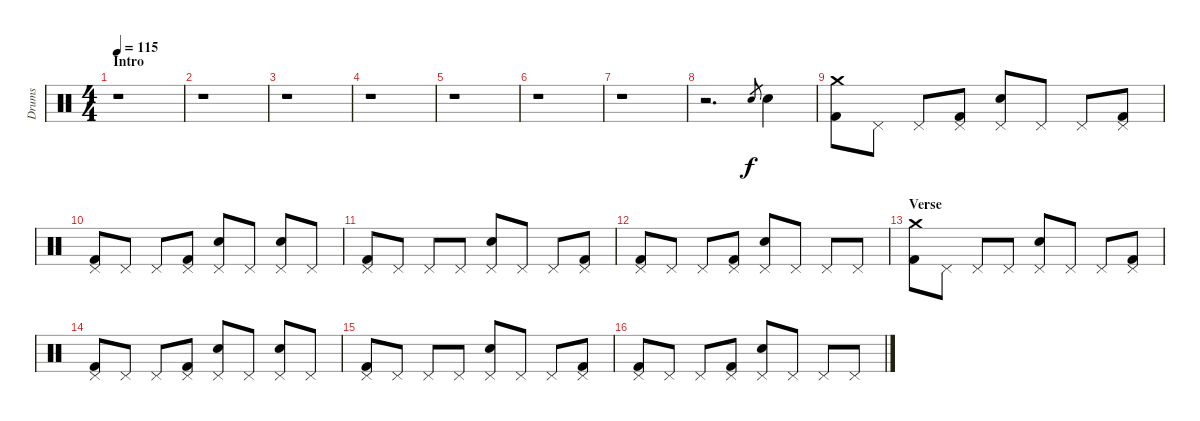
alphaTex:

\track ("Drums" "Drums") {instrument percussion}
\staff {score}
\articulation defaults
\ts (4 4)
\section ("" "Intro")
\tempo 115
\clef neutral
\ks c
r.1{dy f} |
r.1 |
r.1 |
r.1 |
r.1 |
r.1 |
r.1 |
r.2{d} "Electric Snare (hit)".8{gr} "Electric Snare (hit)".4 |
("Crash medium (hit)" "Kick (hit) 2").8 "Pedal Hi-Hat (hit)".8 "Pedal Hi-Hat (hit)".8 ("Pedal Hi-Hat (hit)" "Kick (hit) 2").8 ("Pedal Hi-Hat (hit)" "Electric Snare (hit)").8 "Pedal Hi-Hat (hit)".8 "Pedal Hi-Hat (hit)".8 ("Pedal Hi-Hat (hit)" "Kick (hit) 2").8 |
("Pedal Hi-Hat (hit)" "Kick (hit) 2").8 "Pedal Hi-Hat (hit)".8 "Pedal Hi-Hat (hit)".8 ("Pedal Hi-Hat (hit)" "Kick (hit) 2").8 ("Pedal Hi-Hat (hit)" "Electric Snare (hit)").8 "Pedal Hi-Hat (hit)".8 ("Pedal Hi-Hat (hit)" "Electric Snare (hit)").8 "Pedal Hi-Hat (hit)".8 |
("Pedal Hi-Hat (hit)" "Kick (hit) 2").8 "Pedal Hi-Hat (hit)".8 "Pedal Hi-Hat (hit)".8 "Pedal Hi-Hat (hit)".8 ("Pedal Hi-Hat (hit)" "Electric Snare (hit)").8 "Pedal Hi-Hat (hit)".8 "Pedal Hi-Hat (hit)".8 ("Pedal Hi-Hat (hit)" "Kick (hit) 2").8 |
("Pedal Hi-Hat (hit)" "Kick (hit) 2").8 "Pedal Hi-Hat (hit)".8 "Pedal Hi-Hat (hit)".8 ("Pedal Hi-Hat (hit)" "Kick (hit) 2").8 ("Pedal Hi-Hat (hit)" "Electric Snare (hit)").8 "Pedal Hi-Hat (hit)".8 "Pedal Hi-Hat (hit)".8 "Pedal Hi-Hat (hit)".8 |
\section ("" "Verse")
("Crash medium (hit)" "Kick (hit) 2").8 "Pedal Hi-Hat (hit)".8 "Pedal Hi-Hat (hit)".8 "Pedal Hi-Hat (hit)".8 ("Pedal Hi-Hat (hit)" "Electric Snare (hit)").8 "Pedal Hi-Hat (hit)".8 "Pedal Hi-Hat (hit)".8 ("Pedal Hi-Hat (hit)" "Kick (hit) 2").8 |
("Pedal Hi-Hat (hit)" "Kick (hit) 2").8 "Pedal Hi-Hat (hit)".8 "Pedal Hi-Hat (hit)".8 ("Pedal Hi-Hat (hit)" "Kick (hit) 2").8 ("Pedal Hi-Hat (hit)" "Electric Snare (hit)").8 "Pedal Hi-Hat (hit)".8 ("Pedal Hi-Hat (hit)" "Electric Snare (hit)").8 "Pedal Hi-Hat (hit)".8 |
("Pedal Hi-Hat (hit)" "Kick (hit) 2").8 "Pedal Hi-Hat (hit)".8 "Pedal Hi-Hat (hit)".8 "Pedal Hi-Hat (hit)".8 ("Pedal Hi-Hat (hit)" "Electric Snare (hit)").8 "Pedal Hi-Hat (hit)".8 "Pedal Hi-Hat (hit)".8 ("Pedal Hi-Hat (hit)" "Kick (hit) 2").8 |
("Pedal Hi-Hat (hit)" "Kick (hit) 2").8 "Pedal Hi-Hat (hit)".8 "Pedal Hi-Hat (hit)".8 ("Pedal Hi-Hat (hit)" "Kick (hit) 2").8 ("Pedal Hi-Hat (hit)" "Electric Snare (hit)").8 "Pedal Hi-Hat (hit)".8 "Pedal Hi-Hat (hit)".8 "Pedal Hi-Hat (hit)".8
